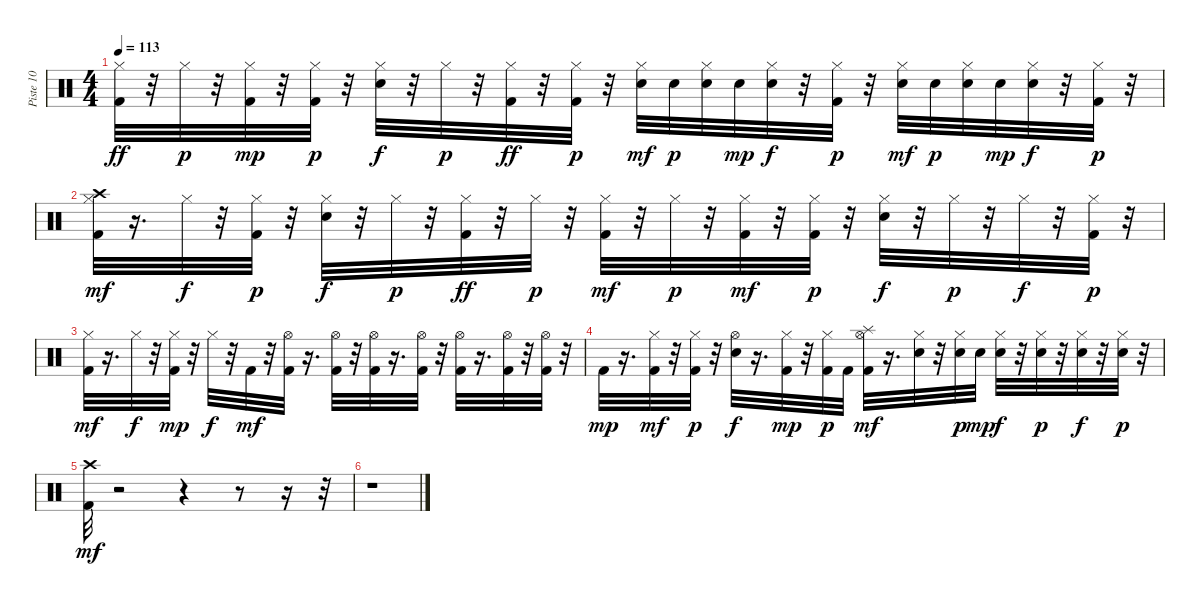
\track ("Piste 10" "Piste 10") {instrument percussion}
\staff {score}
\articulation defaults
\ts (4 4)
\tempo 113
\clef neutral
\ks c
("Kick (hit) 2" "Hi-Hat (closed)").32{dy ff} r.32 "Hi-Hat (closed)".32{dy p} r.32 ("Kick (hit) 2" "Hi-Hat (closed)").32{dy mp} r.32 ("Kick (hit) 2" "Hi-Hat (closed)").32{dy p} r.32 ("Electric Snare (hit)" "Hi-Hat (closed)").32{dy f} r.32 "Hi-Hat (closed)".32{dy p} r.32 ("Kick (hit) 2" "Hi-Hat (closed)").32{dy ff} r.32 ("Kick (hit) 2" "Hi-Hat (closed)").32{dy p} r.32 ("Electric Snare (hit)" "Hi-Hat (closed)").32{dy mf} "Electric Snare (hit)".32{dy p} ("Electric Snare (hit)" "Hi-Hat (closed)").32 "Electric Snare (hit)".32{dy mp} ("Electric Snare (hit)" "Hi-Hat (closed)").32{dy f} r.32 ("Kick (hit) 2" "Hi-Hat (closed)").32{dy p} r.32 ("Electric Snare (hit)" "Hi-Hat (closed)").32{dy mf} "Electric Snare (hit)".32{dy p} ("Electric Snare (hit)" "Hi-Hat (closed)").32 "Electric Snare (hit)".32{dy mp} ("Electric Snare (hit)" "Hi-Hat (closed)").32{dy f} r.32 ("Kick (hit) 2" "Hi-Hat (closed)").32{dy p} r.32 |
("Kick (hit) 2" "Hi-Hat (closed)" "Crash high (hit)").32{dy mf} r.16{d} "Hi-Hat (closed)".32{dy f} r.32 ("Kick (hit) 2" "Hi-Hat (closed)").32{dy p} r.32 ("Electric Snare (hit)" "Hi-Hat (closed)").32{dy f} r.32 "Hi-Hat (closed)".32{dy p} r.32 ("Kick (hit) 2" "Hi-Hat (closed)").32{dy ff} r.32 "Hi-Hat (closed)".32{dy p} r.32 ("Kick (hit) 2" "Hi-Hat (closed)").32{dy mf} r.32 "Hi-Hat (closed)".32{dy p} r.32 ("Kick (hit) 2" "Hi-Hat (closed)").32{dy mf} r.32 ("Kick (hit) 2" "Hi-Hat (closed)").32{dy p} r.32 ("Electric Snare (hit)" "Hi-Hat (closed)").32{dy f} r.32 "Hi-Hat (closed)".32{dy p} r.32 "Hi-Hat (closed)".32{dy f} r.32 ("Kick (hit) 2" "Hi-Hat (closed)").32{dy p} r.32 |
("Kick (hit) 2" "Hi-Hat (closed)").32{dy mf} r.16{d} "Hi-Hat (closed)".32{dy f} r.32 ("Kick (hit) 2" "Hi-Hat (closed)").32{dy mp} r.32 "Hi-Hat (closed)".32{dy f} r.32 "Kick (hit) 2".32{dy mf} r.32 ("Kick (hit) 2" "Hi-Hat (open)").32 r.16{d} ("Kick (hit) 2" "Hi-Hat (open)").32 r.32 ("Kick (hit) 2" "Hi-Hat (open)").32 r.16{d} ("Kick (hit) 2" "Hi-Hat (open)").32 r.32 ("Kick (hit) 2" "Hi-Hat (open)").32 r.16{d} ("Kick (hit) 2" "Hi-Hat (open)").32 r.32 ("Kick (hit) 2" "Hi-Hat (open)").32 r.32 |
"Kick (hit) 2".32{dy mp} r.16{d} ("Kick (hit) 2" "Hi-Hat (closed)").32{dy mf} r.32 ("Kick (hit) 2" "Hi-Hat (closed)").32{dy p} r.32 ("Electric Snare (hit)" "Hi-Hat (open)").32{dy f} r.16{d} ("Kick (hit) 2" "Hi-Hat (closed)").32{dy mp} r.32 ("Kick (hit) 2" "Hi-Hat (closed)").32{dy p} "Kick (hit) 2".32 ("Kick (hit) 2" "Hi-Hat (open)" "Splash (hit)").32{dy mf} r.16{d} ("Electric Snare (hit)" "Hi-Hat (closed)").32 r.32 ("Electric Snare (hit)" "Hi-Hat (closed)").32{dy p} "Electric Snare (hit)".32{dy mp} ("Electric Snare (hit)" "Hi-Hat (closed)").32{dy f} r.32 ("Electric Snare (hit)" "Hi-Hat (closed)").32{dy p} r.32 ("Electric Snare (hit)" "Hi-Hat (closed)").32{dy f} r.32 ("Electric Snare (hit)" "Hi-Hat (closed)").32{dy p} r.32 |
("Kick (hit) 2" "Crash high (hit)").32{dy mf} r.2 r.4 r.8 r.16 r.32 |
r.1
